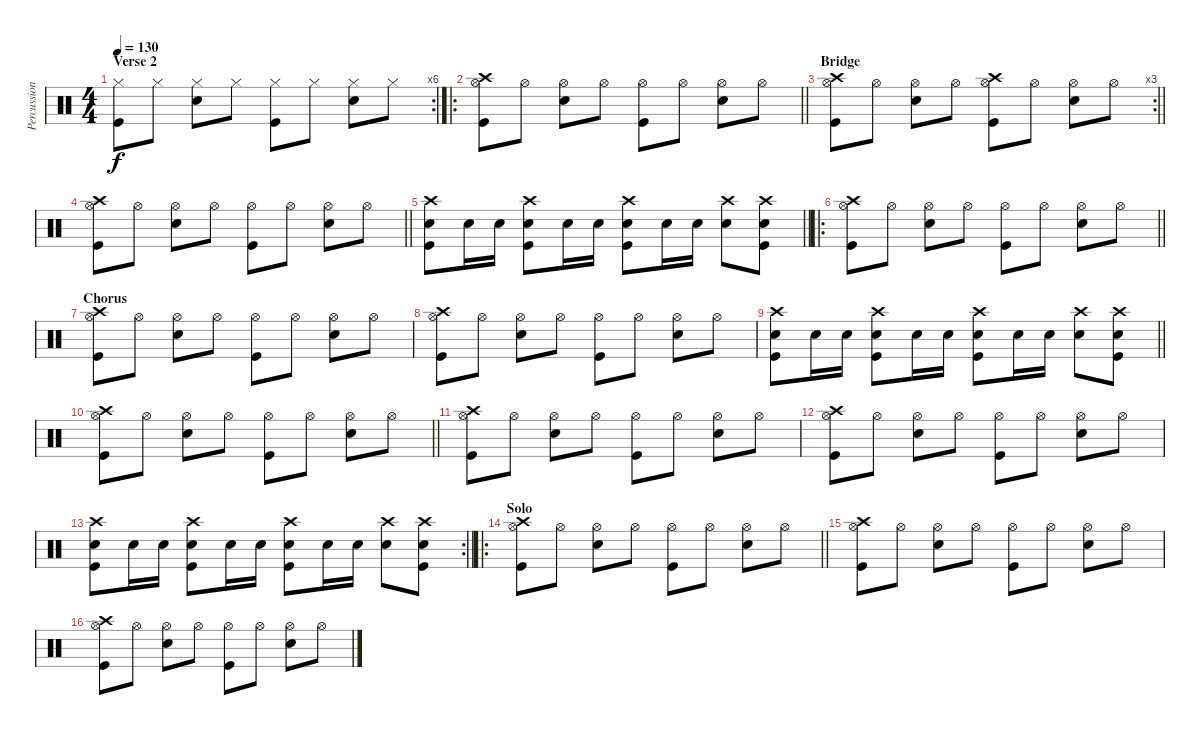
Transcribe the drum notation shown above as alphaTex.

\track ("Percussion" "Percussion") {instrument percussion}
\staff {score}
\articulation defaults
\rc 6
\ts (4 4)
\section ("" "Verse 2")
\tempo 130
\clef neutral
\ks c
("Hi-Hat (closed)" "Kick (hit)").8{dy f} "Hi-Hat (closed)".8 ("Hi-Hat (closed)" "Snare (hit) 2").8 "Hi-Hat (closed)".8 ("Hi-Hat (closed)" "Kick (hit)").8 "Hi-Hat (closed)".8 ("Hi-Hat (closed)" "Snare (hit) 2").8 "Hi-Hat (closed)".8 |
\ro
\barLineRight lightlight
("Crash high (hit)" "Hi-Hat (open)" "Kick (hit)").8 "Hi-Hat (open)".8 ("Hi-Hat (open)" "Snare (hit) 2").8 "Hi-Hat (open)".8 ("Hi-Hat (open)" "Kick (hit)").8 "Hi-Hat (open)".8 ("Hi-Hat (open)" "Snare (hit) 2").8 "Hi-Hat (open)".8 |
\rc 3
\section ("" "Bridge")
\barLineRight lightlight
("Crash high (hit)" "Hi-Hat (open)" "Kick (hit)").8 "Hi-Hat (open)".8 ("Hi-Hat (open)" "Snare (hit) 2").8 "Hi-Hat (open)".8 ("Crash high (hit)" "Hi-Hat (open)" "Kick (hit)").8 "Hi-Hat (open)".8 ("Hi-Hat (open)" "Snare (hit) 2").8 "Hi-Hat (open)".8 |
\barLineRight lightlight
("Crash high (hit)" "Hi-Hat (open)" "Kick (hit)").8 "Hi-Hat (open)".8 ("Hi-Hat (open)" "Snare (hit) 2").8 "Hi-Hat (open)".8 ("Hi-Hat (open)" "Kick (hit)").8 "Hi-Hat (open)".8 ("Hi-Hat (open)" "Snare (hit) 2").8 "Hi-Hat (open)".8 |
\barLineRight lightlight
("Crash high (hit)" "Snare (hit) 2" "Kick (hit)").8 "Snare (hit) 2".16 "Snare (hit) 2".16 ("Crash high (hit)" "Snare (hit) 2" "Kick (hit)").8 "Snare (hit) 2".16 "Snare (hit) 2".16 ("Crash high (hit)" "Snare (hit) 2" "Kick (hit)").8 "Snare (hit) 2".16 "Snare (hit) 2".16 ("Crash high (hit)" "Snare (hit) 2").8 ("Crash high (hit)" "Snare (hit) 2" "Kick (hit)").8 |
\ro
\barLineRight lightlight
("Crash high (hit)" "Hi-Hat (open)" "Kick (hit)").8 "Hi-Hat (open)".8 ("Hi-Hat (open)" "Snare (hit) 2").8 "Hi-Hat (open)".8 ("Hi-Hat (open)" "Kick (hit)").8 "Hi-Hat (open)".8 ("Hi-Hat (open)" "Snare (hit) 2").8 "Hi-Hat (open)".8 |
\section ("" "Chorus ")
("Crash high (hit)" "Hi-Hat (open)" "Kick (hit)").8 "Hi-Hat (open)".8 ("Hi-Hat (open)" "Snare (hit) 2").8 "Hi-Hat (open)".8 ("Hi-Hat (open)" "Kick (hit)").8 "Hi-Hat (open)".8 ("Hi-Hat (open)" "Snare (hit) 2").8 "Hi-Hat (open)".8 |
("Crash high (hit)" "Hi-Hat (open)" "Kick (hit)").8 "Hi-Hat (open)".8 ("Hi-Hat (open)" "Snare (hit) 2").8 "Hi-Hat (open)".8 ("Hi-Hat (open)" "Kick (hit)").8 "Hi-Hat (open)".8 ("Hi-Hat (open)" "Snare (hit) 2").8 "Hi-Hat (open)".8 |
\barLineRight lightlight
("Crash high (hit)" "Snare (hit) 2" "Kick (hit)").8 "Snare (hit) 2".16 "Snare (hit) 2".16 ("Crash high (hit)" "Snare (hit) 2" "Kick (hit)").8 "Snare (hit) 2".16 "Snare (hit) 2".16 ("Crash high (hit)" "Snare (hit) 2" "Kick (hit)").8 "Snare (hit) 2".16 "Snare (hit) 2".16 ("Crash high (hit)" "Snare (hit) 2").8 ("Crash high (hit)" "Snare (hit) 2" "Kick (hit)").8 |
\barLineRight lightlight
("Crash high (hit)" "Hi-Hat (open)" "Kick (hit)").8 "Hi-Hat (open)".8 ("Hi-Hat (open)" "Snare (hit) 2").8 "Hi-Hat (open)".8 ("Hi-Hat (open)" "Kick (hit)").8 "Hi-Hat (open)".8 ("Hi-Hat (open)" "Snare (hit) 2").8 "Hi-Hat (open)".8 |
("Crash high (hit)" "Hi-Hat (open)" "Kick (hit)").8 "Hi-Hat (open)".8 ("Hi-Hat (open)" "Snare (hit) 2").8 "Hi-Hat (open)".8 ("Hi-Hat (open)" "Kick (hit)").8 "Hi-Hat (open)".8 ("Hi-Hat (open)" "Snare (hit) 2").8 "Hi-Hat (open)".8 |
("Crash high (hit)" "Hi-Hat (open)" "Kick (hit)").8 "Hi-Hat (open)".8 ("Hi-Hat (open)" "Snare (hit) 2").8 "Hi-Hat (open)".8 ("Hi-Hat (open)" "Kick (hit)").8 "Hi-Hat (open)".8 ("Hi-Hat (open)" "Snare (hit) 2").8 "Hi-Hat (open)".8 |
\rc 2
\barLineRight lightlight
("Crash high (hit)" "Snare (hit) 2" "Kick (hit)").8 "Snare (hit) 2".16 "Snare (hit) 2".16 ("Crash high (hit)" "Snare (hit) 2" "Kick (hit)").8 "Snare (hit) 2".16 "Snare (hit) 2".16 ("Crash high (hit)" "Snare (hit) 2" "Kick (hit)").8 "Snare (hit) 2".16 "Snare (hit) 2".16 ("Crash high (hit)" "Snare (hit) 2").8 ("Crash high (hit)" "Snare (hit) 2" "Kick (hit)").8 |
\ro
\section ("" "Solo")
\barLineRight lightlight
("Crash high (hit)" "Hi-Hat (open)" "Kick (hit)").8 "Hi-Hat (open)".8 ("Hi-Hat (open)" "Snare (hit) 2").8 "Hi-Hat (open)".8 ("Hi-Hat (open)" "Kick (hit)").8 "Hi-Hat (open)".8 ("Hi-Hat (open)" "Snare (hit) 2").8 "Hi-Hat (open)".8 |
("Crash high (hit)" "Hi-Hat (open)" "Kick (hit)").8 "Hi-Hat (open)".8 ("Hi-Hat (open)" "Snare (hit) 2").8 "Hi-Hat (open)".8 ("Hi-Hat (open)" "Kick (hit)").8 "Hi-Hat (open)".8 ("Hi-Hat (open)" "Snare (hit) 2").8 "Hi-Hat (open)".8 |
("Crash high (hit)" "Hi-Hat (open)" "Kick (hit)").8 "Hi-Hat (open)".8 ("Hi-Hat (open)" "Snare (hit) 2").8 "Hi-Hat (open)".8 ("Hi-Hat (open)" "Kick (hit)").8 "Hi-Hat (open)".8 ("Hi-Hat (open)" "Snare (hit) 2").8 "Hi-Hat (open)".8
